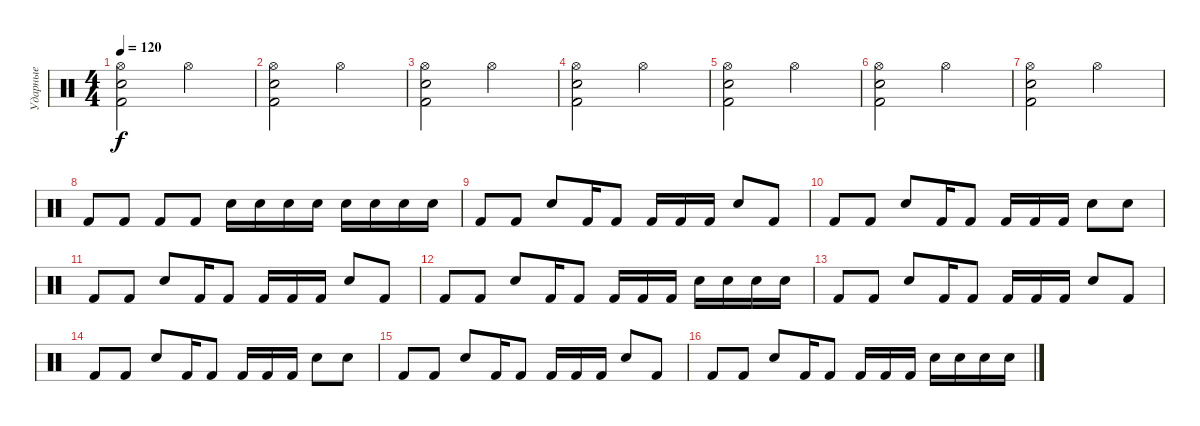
\track ("Ударные" "Ударные") {instrument percussion}
\staff {score}
\articulation defaults
\ts (4 4)
\tempo 120
\clef neutral
\ks c
("Hi-Hat (open)" "Electric Snare (hit)" "Kick (hit) 2").2{dy f} "Hi-Hat (open)".2 |
("Hi-Hat (open)" "Electric Snare (hit)" "Kick (hit) 2").2 "Hi-Hat (open)".2 |
("Hi-Hat (open)" "Electric Snare (hit)" "Kick (hit) 2").2 "Hi-Hat (open)".2 |
("Hi-Hat (open)" "Electric Snare (hit)" "Kick (hit) 2").2 "Hi-Hat (open)".2 |
("Hi-Hat (open)" "Electric Snare (hit)" "Kick (hit) 2").2 "Hi-Hat (open)".2 |
("Hi-Hat (open)" "Electric Snare (hit)" "Kick (hit) 2").2 "Hi-Hat (open)".2 |
("Hi-Hat (open)" "Electric Snare (hit)" "Kick (hit) 2").2 "Hi-Hat (open)".2 |
"Kick (hit) 2".8 "Kick (hit) 2".8 "Kick (hit) 2".8 "Kick (hit) 2".8 "Electric Snare (hit)".16 "Electric Snare (hit)".16 "Electric Snare (hit)".16 "Electric Snare (hit)".16 "Electric Snare (hit)".16 "Electric Snare (hit)".16 "Electric Snare (hit)".16 "Electric Snare (hit)".16 |
"Kick (hit) 2".8 "Kick (hit) 2".8 "Electric Snare (hit)".8 "Kick (hit) 2".16 "Kick (hit) 2".8 "Kick (hit) 2".16 "Kick (hit) 2".16 "Kick (hit) 2".16 "Electric Snare (hit)".8 "Kick (hit) 2".8 |
"Kick (hit) 2".8 "Kick (hit) 2".8 "Electric Snare (hit)".8 "Kick (hit) 2".16 "Kick (hit) 2".8 "Kick (hit) 2".16 "Kick (hit) 2".16 "Kick (hit) 2".16 "Electric Snare (hit)".8 "Electric Snare (hit)".8 |
"Kick (hit) 2".8 "Kick (hit) 2".8 "Electric Snare (hit)".8 "Kick (hit) 2".16 "Kick (hit) 2".8 "Kick (hit) 2".16 "Kick (hit) 2".16 "Kick (hit) 2".16 "Electric Snare (hit)".8 "Kick (hit) 2".8 |
"Kick (hit) 2".8 "Kick (hit) 2".8 "Electric Snare (hit)".8 "Kick (hit) 2".16 "Kick (hit) 2".8 "Kick (hit) 2".16 "Kick (hit) 2".16 "Kick (hit) 2".16 "Electric Snare (hit)".16 "Electric Snare (hit)".16 "Electric Snare (hit)".16 "Electric Snare (hit)".16 |
"Kick (hit) 2".8 "Kick (hit) 2".8 "Electric Snare (hit)".8 "Kick (hit) 2".16 "Kick (hit) 2".8 "Kick (hit) 2".16 "Kick (hit) 2".16 "Kick (hit) 2".16 "Electric Snare (hit)".8 "Kick (hit) 2".8 |
"Kick (hit) 2".8 "Kick (hit) 2".8 "Electric Snare (hit)".8 "Kick (hit) 2".16 "Kick (hit) 2".8 "Kick (hit) 2".16 "Kick (hit) 2".16 "Kick (hit) 2".16 "Electric Snare (hit)".8 "Electric Snare (hit)".8 |
"Kick (hit) 2".8 "Kick (hit) 2".8 "Electric Snare (hit)".8 "Kick (hit) 2".16 "Kick (hit) 2".8 "Kick (hit) 2".16 "Kick (hit) 2".16 "Kick (hit) 2".16 "Electric Snare (hit)".8 "Kick (hit) 2".8 |
"Kick (hit) 2".8 "Kick (hit) 2".8 "Electric Snare (hit)".8 "Kick (hit) 2".16 "Kick (hit) 2".8 "Kick (hit) 2".16 "Kick (hit) 2".16 "Kick (hit) 2".16 "Electric Snare (hit)".16 "Electric Snare (hit)".16 "Electric Snare (hit)".16 "Electric Snare (hit)".16
